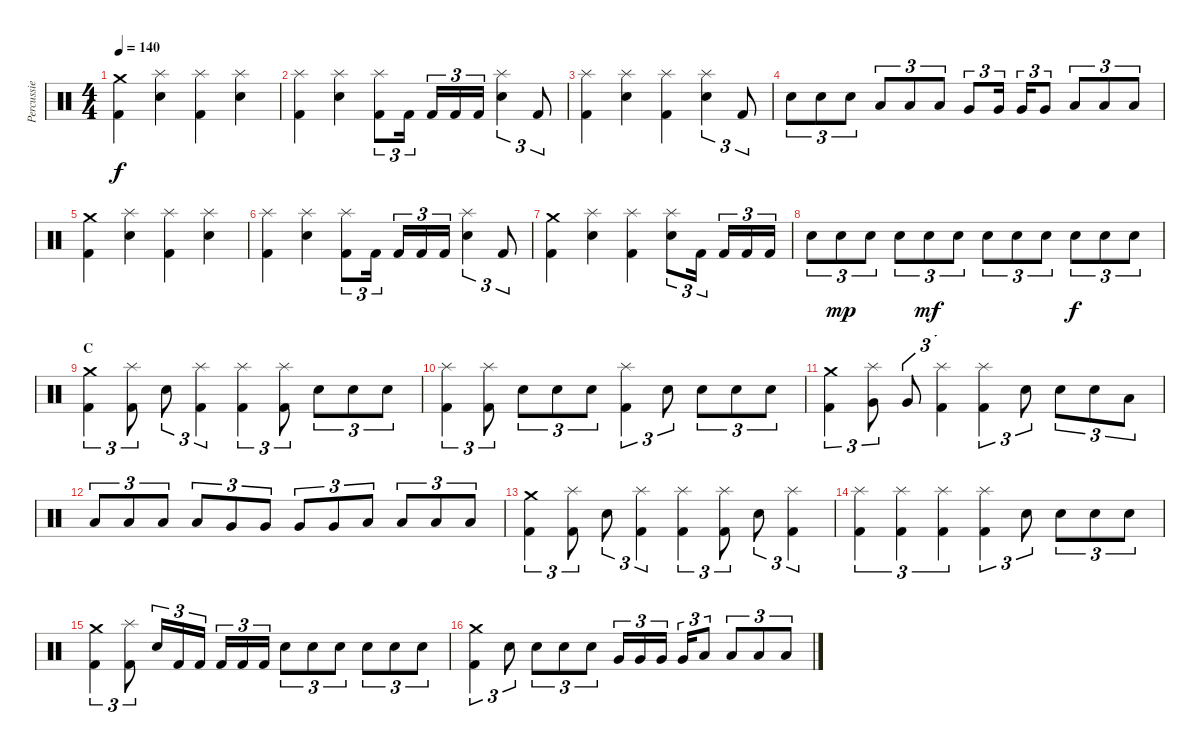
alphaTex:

\track ("Percussie" "Percussie") {instrument percussion}
\staff {score}
\articulation defaults
\ts (4 4)
\tempo 140
\clef neutral
\ks c
("Crash medium (hit)" "Kick (hit) 2").4{dy f} ("Splash (hit)" "Electric Snare (hit)").4 ("Splash (hit)" "Kick (hit) 2").4 ("Splash (hit)" "Electric Snare (hit)").4 |
("Splash (hit)" "Kick (hit) 2").4 ("Splash (hit)" "Electric Snare (hit)").4 ("Splash (hit)" "Kick (hit) 2").8{tu (3 2)} "Kick (hit) 2".16{tu (3 2)} "Kick (hit) 2".16{tu (3 2)} "Kick (hit) 2".16{tu (3 2)} "Kick (hit) 2".16{tu (3 2)} ("Splash (hit)" "Electric Snare (hit)").4{tu (3 2)} "Kick (hit) 2".8{tu (3 2)} |
("Splash (hit)" "Kick (hit) 2").4 ("Splash (hit)" "Electric Snare (hit)").4 ("Splash (hit)" "Kick (hit) 2").4 ("Splash (hit)" "Electric Snare (hit)").4{tu (3 2)} "Kick (hit) 2".8{tu (3 2)} |
"Electric Snare (hit)".8{tu (3 2)} "Electric Snare (hit)".8{tu (3 2)} "Electric Snare (hit)".8{tu (3 2)} "Low Tom (hit)".8{tu (3 2)} "Low Tom (hit)".8{tu (3 2)} "Low Tom (hit)".8{tu (3 2)} "Very Low Tom (hit)".8{tu (3 2)} "Very Low Tom (hit)".16{tu (3 2)} "Very Low Tom (hit)".16{tu (3 2)} "Very Low Tom (hit)".8{tu (3 2)} "Low Floor Tom (hit)".8{tu (3 2)} "Low Floor Tom (hit)".8{tu (3 2)} "Low Floor Tom (hit)".8{tu (3 2)} |
("Crash medium (hit)" "Kick (hit) 2").4 ("Splash (hit)" "Electric Snare (hit)").4 ("Splash (hit)" "Kick (hit) 2").4 ("Splash (hit)" "Electric Snare (hit)").4 |
("Splash (hit)" "Kick (hit) 2").4 ("Splash (hit)" "Electric Snare (hit)").4 ("Splash (hit)" "Kick (hit) 2").8{tu (3 2)} "Kick (hit) 2".16{tu (3 2)} "Kick (hit) 2".16{tu (3 2)} "Kick (hit) 2".16{tu (3 2)} "Kick (hit) 2".16{tu (3 2)} ("Splash (hit)" "Electric Snare (hit)").4{tu (3 2)} "Kick (hit) 2".8{tu (3 2)} |
("Crash medium (hit)" "Kick (hit) 2").4 ("Splash (hit)" "Electric Snare (hit)").4 ("Splash (hit)" "Kick (hit) 2").4 ("Splash (hit)" "Electric Snare (hit)").8{tu (3 2)} "Kick (hit) 2".16{tu (3 2)} "Kick (hit) 2".16{tu (3 2)} "Kick (hit) 2".16{tu (3 2)} "Kick (hit) 2".16{tu (3 2)} |
"Electric Snare (hit)".8{tu (3 2)} "Electric Snare (hit)".8{tu (3 2) dy mp} "Electric Snare (hit)".8{tu (3 2)} "Electric Snare (hit)".8{tu (3 2)} "Electric Snare (hit)".8{tu (3 2) dy mf} "Electric Snare (hit)".8{tu (3 2)} "Electric Snare (hit)".8{tu (3 2)} "Electric Snare (hit)".8{tu (3 2)} "Electric Snare (hit)".8{tu (3 2)} "Electric Snare (hit)".8{tu (3 2) dy f} "Electric Snare (hit)".8{tu (3 2)} "Electric Snare (hit)".8{tu (3 2)} |
\section ("" "C")
("Crash medium (hit)" "Kick (hit) 2").4{tu (3 2)} ("Splash (hit)" "Kick (hit) 2").8{tu (3 2)} "Electric Snare (hit)".8{tu (3 2)} ("Splash (hit)" "Kick (hit) 2").4{tu (3 2)} ("Splash (hit)" "Kick (hit) 2").4{tu (3 2)} ("Splash (hit)" "Kick (hit) 2").8{tu (3 2)} "Electric Snare (hit)".8{tu (3 2)} "Electric Snare (hit)".8{tu (3 2)} "Electric Snare (hit)".8{tu (3 2)} |
("Splash (hit)" "Kick (hit) 2").4{tu (3 2)} ("Splash (hit)" "Kick (hit) 2").8{tu (3 2)} "Electric Snare (hit)".8{tu (3 2)} "Electric Snare (hit)".8{tu (3 2)} "Electric Snare (hit)".8{tu (3 2)} ("Splash (hit)" "Kick (hit) 2").4{tu (3 2)} "Electric Snare (hit)".8{tu (3 2)} "Electric Snare (hit)".8{tu (3 2)} "Electric Snare (hit)".8{tu (3 2)} "Electric Snare (hit)".8{tu (3 2)} |
("Crash medium (hit)" "Kick (hit) 2").4{tu (3 2)} ("Splash (hit)" "Very Low Tom (hit)").8{tu (3 2)} "Very Low Tom (hit)".8{tu (3 2)} ("Splash (hit)" "Kick (hit) 2").4{tu (3 2)} ("Splash (hit)" "Kick (hit) 2").4{tu (3 2)} "Electric Snare (hit)".8{tu (3 2)} "Electric Snare (hit)".8{tu (3 2)} "Electric Snare (hit)".8{tu (3 2)} "Low Tom (hit)".8{tu (3 2)} |
"Low Tom (hit)".8{tu (3 2)} "Low Tom (hit)".8{tu (3 2)} "Low Tom (hit)".8{tu (3 2)} "Low Tom (hit)".8{tu (3 2)} "Very Low Tom (hit)".8{tu (3 2)} "Very Low Tom (hit)".8{tu (3 2)} "Very Low Tom (hit)".8{tu (3 2)} "Very Low Tom (hit)".8{tu (3 2)} "Low Floor Tom (hit)".8{tu (3 2)} "Low Floor Tom (hit)".8{tu (3 2)} "Low Floor Tom (hit)".8{tu (3 2)} "Low Floor Tom (hit)".8{tu (3 2)} |
("Crash medium (hit)" "Kick (hit) 2").4{tu (3 2)} ("Splash (hit)" "Kick (hit) 2").8{tu (3 2)} "Electric Snare (hit)".8{tu (3 2)} ("Splash (hit)" "Kick (hit) 2").4{tu (3 2)} ("Splash (hit)" "Kick (hit) 2").4{tu (3 2)} ("Splash (hit)" "Kick (hit) 2").8{tu (3 2)} "Electric Snare (hit)".8{tu (3 2)} ("Splash (hit)" "Kick (hit) 2").4{tu (3 2)} |
("Splash (hit)" "Kick (hit) 2").4{tu (3 2)} ("Splash (hit)" "Kick (hit) 2").4{tu (3 2)} ("Splash (hit)" "Kick (hit) 2").4{tu (3 2)} ("Splash (hit)" "Kick (hit) 2").4{tu (3 2)} "Electric Snare (hit)".8{tu (3 2)} "Electric Snare (hit)".8{tu (3 2)} "Electric Snare (hit)".8{tu (3 2)} "Electric Snare (hit)".8{tu (3 2)} |
("Crash medium (hit)" "Kick (hit) 2").4{tu (3 2)} ("Splash (hit)" "Kick (hit) 2").8{tu (3 2)} "Electric Snare (hit)".16{tu (3 2)} "Kick (hit) 2".16{tu (3 2)} "Kick (hit) 2".16{tu (3 2)} "Kick (hit) 2".16{tu (3 2)} "Kick (hit) 2".16{tu (3 2)} "Kick (hit) 2".16{tu (3 2)} "Electric Snare (hit)".8{tu (3 2)} "Electric Snare (hit)".8{tu (3 2)} "Electric Snare (hit)".8{tu (3 2)} "Electric Snare (hit)".8{tu (3 2)} "Electric Snare (hit)".8{tu (3 2)} "Electric Snare (hit)".8{tu (3 2)} |
("Crash medium (hit)" "Kick (hit) 2").4{tu (3 2)} "Electric Snare (hit)".8{tu (3 2)} "Electric Snare (hit)".8{tu (3 2)} "Electric Snare (hit)".8{tu (3 2)} "Electric Snare (hit)".8{tu (3 2)} "Very Low Tom (hit)".16{tu (3 2)} "Very Low Tom (hit)".16{tu (3 2)} "Very Low Tom (hit)".16{tu (3 2)} "Very Low Tom (hit)".16{tu (3 2)} "Low Floor Tom (hit)".8{tu (3 2)} "Low Floor Tom (hit)".8{tu (3 2)} "Low Floor Tom (hit)".8{tu (3 2)} "Low Floor Tom (hit)".8{tu (3 2)}
